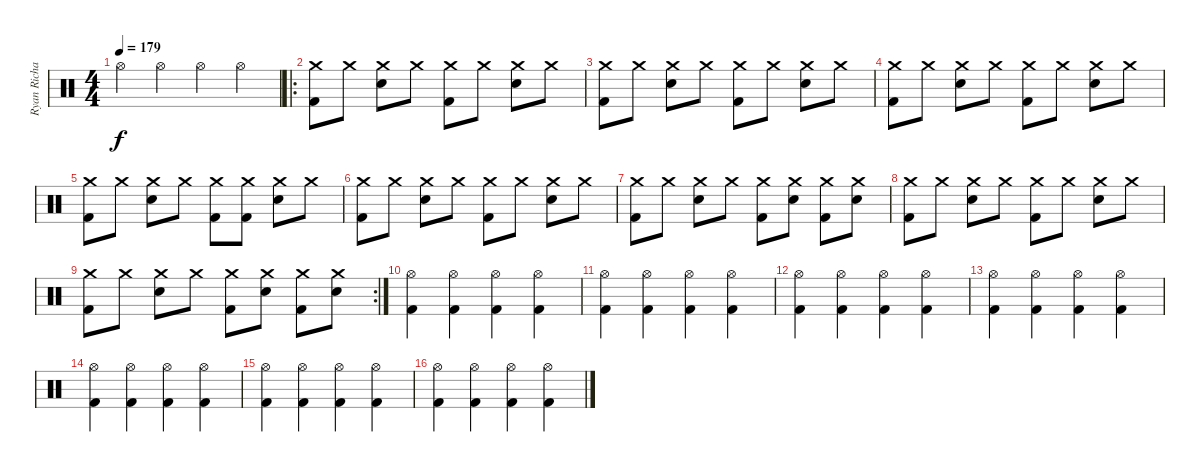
\track ("Ryan Richards" "Ryan Richa") {instrument percussion}
\staff {score}
\articulation defaults
\ts (4 4)
\tempo 179
\clef neutral
\ks c "Hi-Hat (open)".4{dy f} "Hi-Hat (open)".4 "Hi-Hat (open)".4 "Hi-Hat (open)".4
|
\ro
("Crash medium (hit)" "Kick (hit) 2").8 "Crash medium (hit)".8 ("Crash medium (hit)" "Snare (hit) 2").8 "Crash medium (hit)".8 ("Crash medium (hit)" "Kick (hit) 2").8 "Crash medium (hit)".8 ("Crash medium (hit)" "Snare (hit) 2").8 "Crash medium (hit)".8 |
("Crash medium (hit)" "Kick (hit) 2").8 "Crash medium (hit)".8 ("Crash medium (hit)" "Snare (hit) 2").8 "Crash medium (hit)".8 ("Crash medium (hit)" "Kick (hit) 2").8 "Crash medium (hit)".8 ("Crash medium (hit)" "Snare (hit) 2").8 "Crash medium (hit)".8 |
("Crash medium (hit)" "Kick (hit) 2").8 "Crash medium (hit)".8 ("Crash medium (hit)" "Snare (hit) 2").8 "Crash medium (hit)".8 ("Crash medium (hit)" "Kick (hit) 2").8 "Crash medium (hit)".8 ("Crash medium (hit)" "Snare (hit) 2").8 "Crash medium (hit)".8 |
("Crash medium (hit)" "Kick (hit) 2").8 "Crash medium (hit)".8 ("Crash medium (hit)" "Snare (hit) 2").8 "Crash medium (hit)".8 ("Crash medium (hit)" "Kick (hit) 2").8 ("Crash medium (hit)" "Kick (hit) 2").8 ("Crash medium (hit)" "Snare (hit) 2").8 "Crash medium (hit)".8 |
("Crash medium (hit)" "Kick (hit) 2").8 "Crash medium (hit)".8 ("Crash medium (hit)" "Snare (hit) 2").8 "Crash medium (hit)".8 ("Crash medium (hit)" "Kick (hit) 2").8 "Crash medium (hit)".8 ("Crash medium (hit)" "Snare (hit) 2").8 "Crash medium (hit)".8 |
("Crash medium (hit)" "Kick (hit) 2").8 "Crash medium (hit)".8 ("Crash medium (hit)" "Snare (hit) 2").8 "Crash medium (hit)".8 ("Crash medium (hit)" "Kick (hit) 2").8 ("Crash medium (hit)" "Snare (hit) 2").8 ("Crash medium (hit)" "Kick (hit) 2").8 ("Crash medium (hit)" "Snare (hit) 2").8 |
("Crash medium (hit)" "Kick (hit) 2").8 "Crash medium (hit)".8 ("Crash medium (hit)" "Snare (hit) 2").8 "Crash medium (hit)".8 ("Crash medium (hit)" "Kick (hit) 2").8 "Crash medium (hit)".8 ("Crash medium (hit)" "Snare (hit) 2").8 "Crash medium (hit)".8 |
\rc 2
("Crash medium (hit)" "Kick (hit) 2").8 "Crash medium (hit)".8 ("Crash medium (hit)" "Snare (hit) 2").8 "Crash medium (hit)".8 ("Crash medium (hit)" "Kick (hit) 2").8 ("Crash medium (hit)" "Snare (hit) 2").8 ("Crash medium (hit)" "Kick (hit) 2").8 ("Crash medium (hit)" "Snare (hit) 2").8 |
("Hi-Hat (open)" "Kick (hit) 2").4 ("Hi-Hat (open)" "Kick (hit) 2").4 ("Hi-Hat (open)" "Kick (hit) 2").4 ("Hi-Hat (open)" "Kick (hit) 2").4 |
("Hi-Hat (open)" "Kick (hit) 2").4 ("Hi-Hat (open)" "Kick (hit) 2").4 ("Hi-Hat (open)" "Kick (hit) 2").4 ("Hi-Hat (open)" "Kick (hit) 2").4 |
("Hi-Hat (open)" "Kick (hit) 2").4 ("Hi-Hat (open)" "Kick (hit) 2").4 ("Hi-Hat (open)" "Kick (hit) 2").4 ("Hi-Hat (open)" "Kick (hit) 2").4 |
("Hi-Hat (open)" "Kick (hit) 2").4 ("Hi-Hat (open)" "Kick (hit) 2").4 ("Hi-Hat (open)" "Kick (hit) 2").4 ("Hi-Hat (open)" "Kick (hit) 2").4 |
("Hi-Hat (open)" "Kick (hit) 2").4 ("Hi-Hat (open)" "Kick (hit) 2").4 ("Hi-Hat (open)" "Kick (hit) 2").4 ("Hi-Hat (open)" "Kick (hit) 2").4 |
("Hi-Hat (open)" "Kick (hit) 2").4 ("Hi-Hat (open)" "Kick (hit) 2").4 ("Hi-Hat (open)" "Kick (hit) 2").4 ("Hi-Hat (open)" "Kick (hit) 2").4 |
("Hi-Hat (open)" "Kick (hit) 2").4 ("Hi-Hat (open)" "Kick (hit) 2").4 ("Hi-Hat (open)" "Kick (hit) 2").4 ("Hi-Hat (open)" "Kick (hit) 2").4
